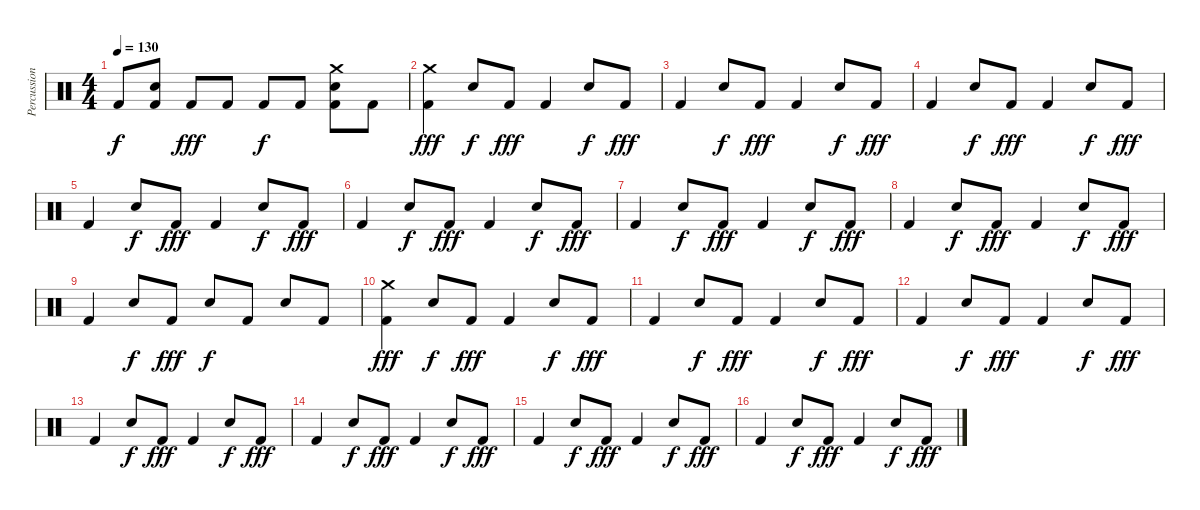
\track ("Percussion" "Percussion") {instrument percussion}
\staff {score}
\articulation defaults
\ts (4 4)
\tempo 130
\clef neutral
\ks c "Kick (hit) 2".8{dy f}
("Electric Snare (hit)" "Kick (hit) 2").8 "Kick (hit) 2".8{dy fff} "Kick (hit) 2".8 "Kick (hit) 2".8{dy f} "Kick (hit) 2".8 ("Electric Snare (hit)" "Crash medium (hit)" "Kick (hit) 2").8 "Kick (hit) 2".8 |
("Crash medium (hit)" "Kick (hit) 2").4{dy fff} "Electric Snare (hit)".8{dy f} "Kick (hit) 2".8{dy fff} "Kick (hit) 2".4 "Electric Snare (hit)".8{dy f} "Kick (hit) 2".8{dy fff} |
"Kick (hit) 2".4 "Electric Snare (hit)".8{dy f} "Kick (hit) 2".8{dy fff} "Kick (hit) 2".4 "Electric Snare (hit)".8{dy f} "Kick (hit) 2".8{dy fff} |
"Kick (hit) 2".4 "Electric Snare (hit)".8{dy f} "Kick (hit) 2".8{dy fff} "Kick (hit) 2".4 "Electric Snare (hit)".8{dy f} "Kick (hit) 2".8{dy fff} |
"Kick (hit) 2".4 "Electric Snare (hit)".8{dy f} "Kick (hit) 2".8{dy fff} "Kick (hit) 2".4 "Electric Snare (hit)".8{dy f} "Kick (hit) 2".8{dy fff} |
"Kick (hit) 2".4 "Electric Snare (hit)".8{dy f} "Kick (hit) 2".8{dy fff} "Kick (hit) 2".4 "Electric Snare (hit)".8{dy f} "Kick (hit) 2".8{dy fff} |
"Kick (hit) 2".4 "Electric Snare (hit)".8{dy f} "Kick (hit) 2".8{dy fff} "Kick (hit) 2".4 "Electric Snare (hit)".8{dy f} "Kick (hit) 2".8{dy fff} |
"Kick (hit) 2".4 "Electric Snare (hit)".8{dy f} "Kick (hit) 2".8{dy fff} "Kick (hit) 2".4 "Electric Snare (hit)".8{dy f} "Kick (hit) 2".8{dy fff} |
"Kick (hit) 2".4 "Electric Snare (hit)".8{dy f} "Kick (hit) 2".8{dy fff} "Electric Snare (hit)".8{dy f} "Kick (hit) 2".8 "Electric Snare (hit)".8 "Kick (hit) 2".8 |
("Crash medium (hit)" "Kick (hit) 2").4{dy fff} "Electric Snare (hit)".8{dy f} "Kick (hit) 2".8{dy fff} "Kick (hit) 2".4 "Electric Snare (hit)".8{dy f} "Kick (hit) 2".8{dy fff} |
"Kick (hit) 2".4 "Electric Snare (hit)".8{dy f} "Kick (hit) 2".8{dy fff} "Kick (hit) 2".4 "Electric Snare (hit)".8{dy f} "Kick (hit) 2".8{dy fff} |
"Kick (hit) 2".4 "Electric Snare (hit)".8{dy f} "Kick (hit) 2".8{dy fff} "Kick (hit) 2".4 "Electric Snare (hit)".8{dy f} "Kick (hit) 2".8{dy fff} |
"Kick (hit) 2".4 "Electric Snare (hit)".8{dy f} "Kick (hit) 2".8{dy fff} "Kick (hit) 2".4 "Electric Snare (hit)".8{dy f} "Kick (hit) 2".8{dy fff} |
"Kick (hit) 2".4 "Electric Snare (hit)".8{dy f} "Kick (hit) 2".8{dy fff} "Kick (hit) 2".4 "Electric Snare (hit)".8{dy f} "Kick (hit) 2".8{dy fff} |
"Kick (hit) 2".4 "Electric Snare (hit)".8{dy f} "Kick (hit) 2".8{dy fff} "Kick (hit) 2".4 "Electric Snare (hit)".8{dy f} "Kick (hit) 2".8{dy fff} |
"Kick (hit) 2".4 "Electric Snare (hit)".8{dy f} "Kick (hit) 2".8{dy fff} "Kick (hit) 2".4 "Electric Snare (hit)".8{dy f} "Kick (hit) 2".8{dy fff}
